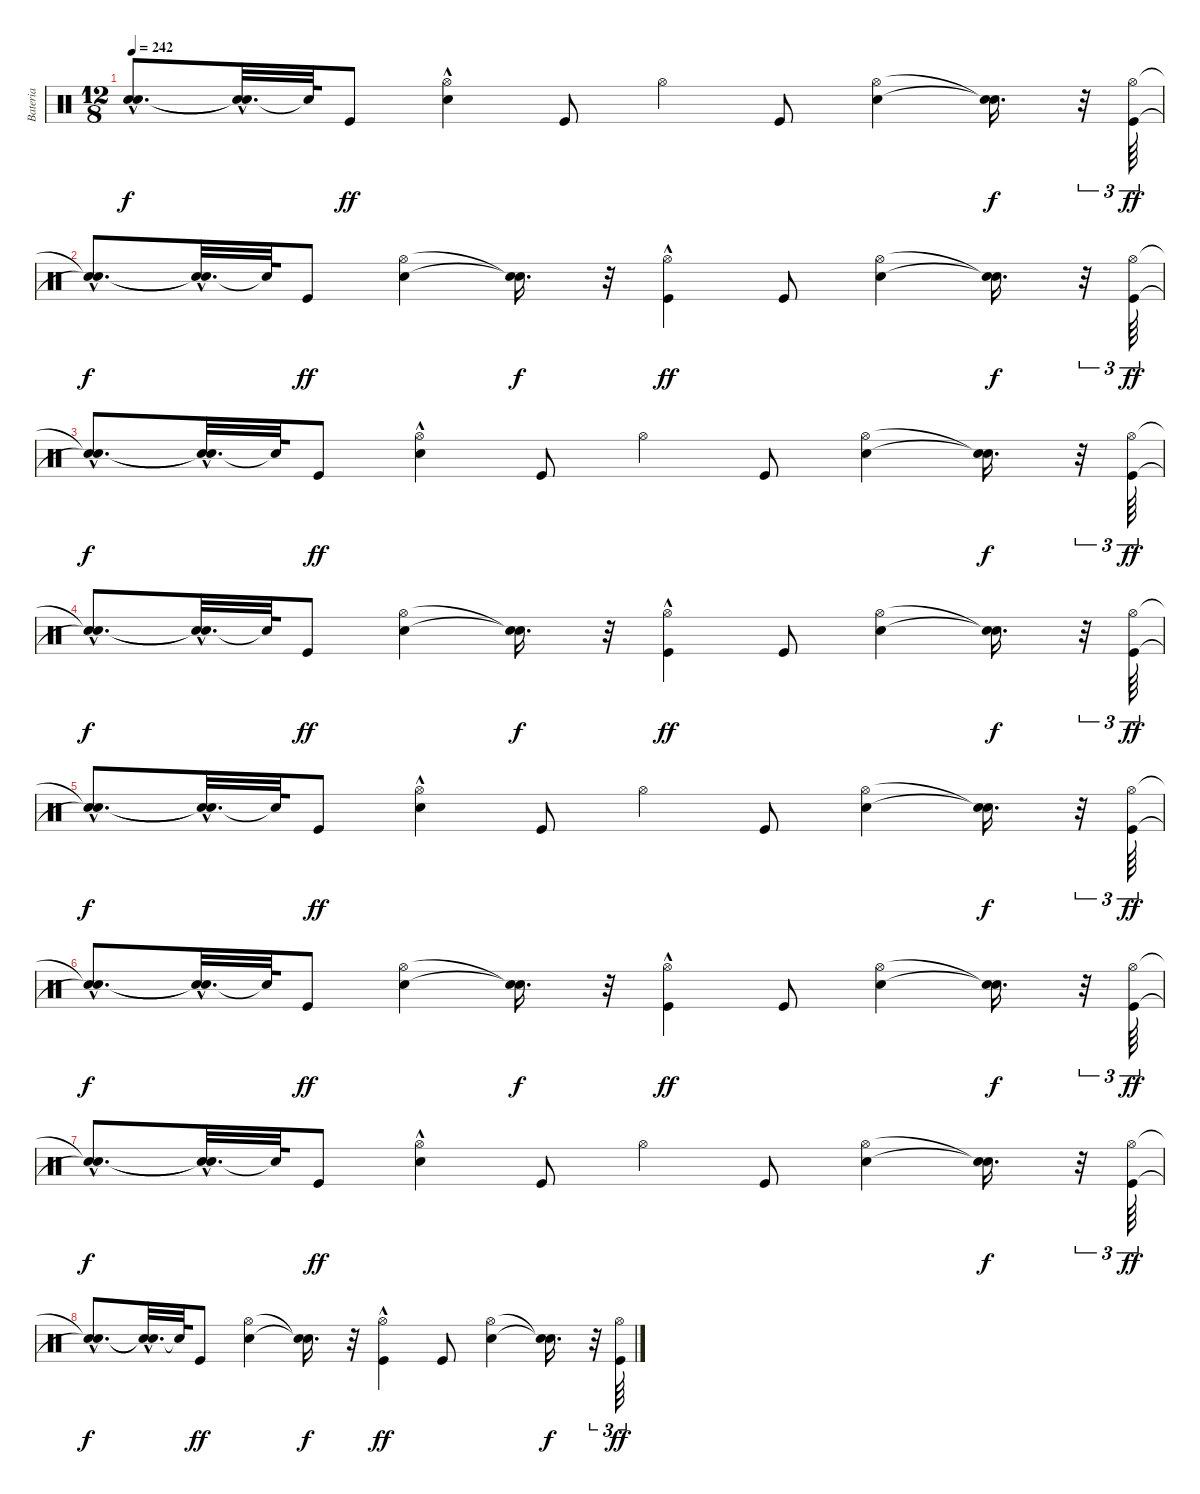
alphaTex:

\track ("Bateria" "Bateria") {instrument percussion}
\staff {score}
\articulation defaults
\ts (12 8)
\tempo 242
\clef neutral
\ks c
("Snare (hit)"{hac t} "Snare (hit)"{hac t}).8{d dy f} ("Snare (hit)"{t} "Snare (hit)"{hac t}).32{d} "Snare (hit)"{t}.64 "Kick (hit)".8{dy ff} ("Snare (hit) 2"{hac} "Hi-Hat (open)").4 "Kick (hit)".8 "Hi-Hat (open)".4 "Kick (hit)".8 ("Snare (hit) 2" "Hi-Hat (open)").4 ("Snare (hit)"{t} "Snare (hit)"{t}).16{d dy f} r.32{tu (3 2)} ("Kick (hit)" "Hi-Hat (open)").64{tu (3 2) dy ff} |
("Snare (hit)"{hac t} "Snare (hit)"{hac t}).8{d dy f} ("Snare (hit)"{t} "Snare (hit)"{hac t}).32{d} "Snare (hit)"{t}.64 "Kick (hit)".8{dy ff} ("Snare (hit) 2" "Hi-Hat (open)").4 ("Snare (hit)"{t} "Snare (hit)"{t}).16{d dy f} r.32 ("Kick (hit)"{hac} "Hi-Hat (open)").4{dy ff} "Kick (hit)".8 ("Snare (hit) 2" "Hi-Hat (open)").4 ("Snare (hit)"{t} "Snare (hit)"{t}).16{d dy f} r.32{tu (3 2)} ("Kick (hit)" "Hi-Hat (open)").64{tu (3 2) dy ff} |
("Snare (hit)"{hac t} "Snare (hit)"{hac t}).8{d dy f} ("Snare (hit)"{t} "Snare (hit)"{hac t}).32{d} "Snare (hit)"{t}.64 "Kick (hit)".8{dy ff} ("Snare (hit) 2"{hac} "Hi-Hat (open)").4 "Kick (hit)".8 "Hi-Hat (open)".4 "Kick (hit)".8 ("Snare (hit) 2" "Hi-Hat (open)").4 ("Snare (hit)"{t} "Snare (hit)"{t}).16{d dy f} r.32{tu (3 2)} ("Kick (hit)" "Hi-Hat (open)").64{tu (3 2) dy ff} |
("Snare (hit)"{hac t} "Snare (hit)"{hac t}).8{d dy f} ("Snare (hit)"{t} "Snare (hit)"{hac t}).32{d} "Snare (hit)"{t}.64 "Kick (hit)".8{dy ff} ("Snare (hit) 2" "Hi-Hat (open)").4 ("Snare (hit)"{t} "Snare (hit)"{t}).16{d dy f} r.32 ("Kick (hit)"{hac} "Hi-Hat (open)").4{dy ff} "Kick (hit)".8 ("Snare (hit) 2" "Hi-Hat (open)").4 ("Snare (hit)"{t} "Snare (hit)"{t}).16{d dy f} r.32{tu (3 2)} ("Kick (hit)" "Hi-Hat (open)").64{tu (3 2) dy ff} |
("Snare (hit)"{hac t} "Snare (hit)"{hac t}).8{d dy f} ("Snare (hit)"{t} "Snare (hit)"{hac t}).32{d} "Snare (hit)"{t}.64 "Kick (hit)".8{dy ff} ("Snare (hit) 2"{hac} "Hi-Hat (open)").4 "Kick (hit)".8 "Hi-Hat (open)".4 "Kick (hit)".8 ("Snare (hit) 2" "Hi-Hat (open)").4 ("Snare (hit)"{t} "Snare (hit)"{t}).16{d dy f} r.32{tu (3 2)} ("Kick (hit)" "Hi-Hat (open)").64{tu (3 2) dy ff} |
("Snare (hit)"{hac t} "Snare (hit)"{hac t}).8{d dy f} ("Snare (hit)"{t} "Snare (hit)"{hac t}).32{d} "Snare (hit)"{t}.64 "Kick (hit)".8{dy ff} ("Snare (hit) 2" "Hi-Hat (open)").4 ("Snare (hit)"{t} "Snare (hit)"{t}).16{d dy f} r.32 ("Kick (hit)"{hac} "Hi-Hat (open)").4{dy ff} "Kick (hit)".8 ("Snare (hit) 2" "Hi-Hat (open)").4 ("Snare (hit)"{t} "Snare (hit)"{t}).16{d dy f} r.32{tu (3 2)} ("Kick (hit)" "Hi-Hat (open)").64{tu (3 2) dy ff} |
("Snare (hit)"{hac t} "Snare (hit)"{hac t}).8{d dy f} ("Snare (hit)"{t} "Snare (hit)"{hac t}).32{d} "Snare (hit)"{t}.64 "Kick (hit)".8{dy ff} ("Snare (hit) 2"{hac} "Hi-Hat (open)").4 "Kick (hit)".8 "Hi-Hat (open)".4 "Kick (hit)".8 ("Snare (hit) 2" "Hi-Hat (open)").4 ("Snare (hit)"{t} "Snare (hit)"{t}).16{d dy f} r.32{tu (3 2)} ("Kick (hit)" "Hi-Hat (open)").64{tu (3 2) dy ff} |
("Snare (hit)"{hac t} "Snare (hit)"{hac t}).8{d dy f} ("Snare (hit)"{t} "Snare (hit)"{hac t}).32{d} "Snare (hit)"{t}.64 "Kick (hit)".8{dy ff} ("Snare (hit) 2" "Hi-Hat (open)").4 ("Snare (hit)"{t} "Snare (hit)"{t}).16{d dy f} r.32 ("Kick (hit)"{hac} "Hi-Hat (open)").4{dy ff} "Kick (hit)".8 ("Snare (hit) 2" "Hi-Hat (open)").4 ("Snare (hit)"{t} "Snare (hit)"{t}).16{d dy f} r.32{tu (3 2)} ("Kick (hit)" "Hi-Hat (open)").64{tu (3 2) dy ff}
